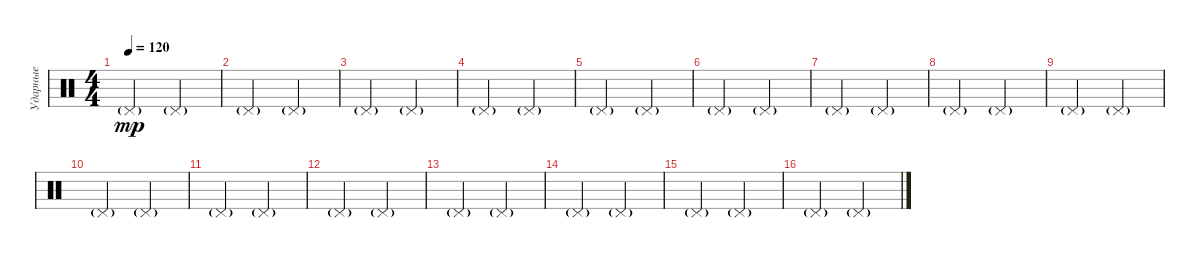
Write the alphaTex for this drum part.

\track ("Ударные" "Ударные") {instrument percussion}
\staff {score}
\articulation defaults
\ts (4 4)
\tempo 120
\clef neutral
\ks c "Pedal Hi-Hat (hit)"{g}.2{dy mp} "Pedal Hi-Hat (hit)"{g}.2
|
"Pedal Hi-Hat (hit)"{g}.2 "Pedal Hi-Hat (hit)"{g}.2 |
"Pedal Hi-Hat (hit)"{g}.2 "Pedal Hi-Hat (hit)"{g}.2 |
"Pedal Hi-Hat (hit)"{g}.2 "Pedal Hi-Hat (hit)"{g}.2 |
"Pedal Hi-Hat (hit)"{g}.2 "Pedal Hi-Hat (hit)"{g}.2 |
"Pedal Hi-Hat (hit)"{g}.2 "Pedal Hi-Hat (hit)"{g}.2 |
"Pedal Hi-Hat (hit)"{g}.2 "Pedal Hi-Hat (hit)"{g}.2 |
"Pedal Hi-Hat (hit)"{g}.2 "Pedal Hi-Hat (hit)"{g}.2 |
"Pedal Hi-Hat (hit)"{g}.2 "Pedal Hi-Hat (hit)"{g}.2 |
"Pedal Hi-Hat (hit)"{g}.2 "Pedal Hi-Hat (hit)"{g}.2 |
"Pedal Hi-Hat (hit)"{g}.2 "Pedal Hi-Hat (hit)"{g}.2 |
"Pedal Hi-Hat (hit)"{g}.2 "Pedal Hi-Hat (hit)"{g}.2 |
"Pedal Hi-Hat (hit)"{g}.2 "Pedal Hi-Hat (hit)"{g}.2 |
"Pedal Hi-Hat (hit)"{g}.2 "Pedal Hi-Hat (hit)"{g}.2 |
"Pedal Hi-Hat (hit)"{g}.2 "Pedal Hi-Hat (hit)"{g}.2 |
"Pedal Hi-Hat (hit)"{g}.2 "Pedal Hi-Hat (hit)"{g}.2
